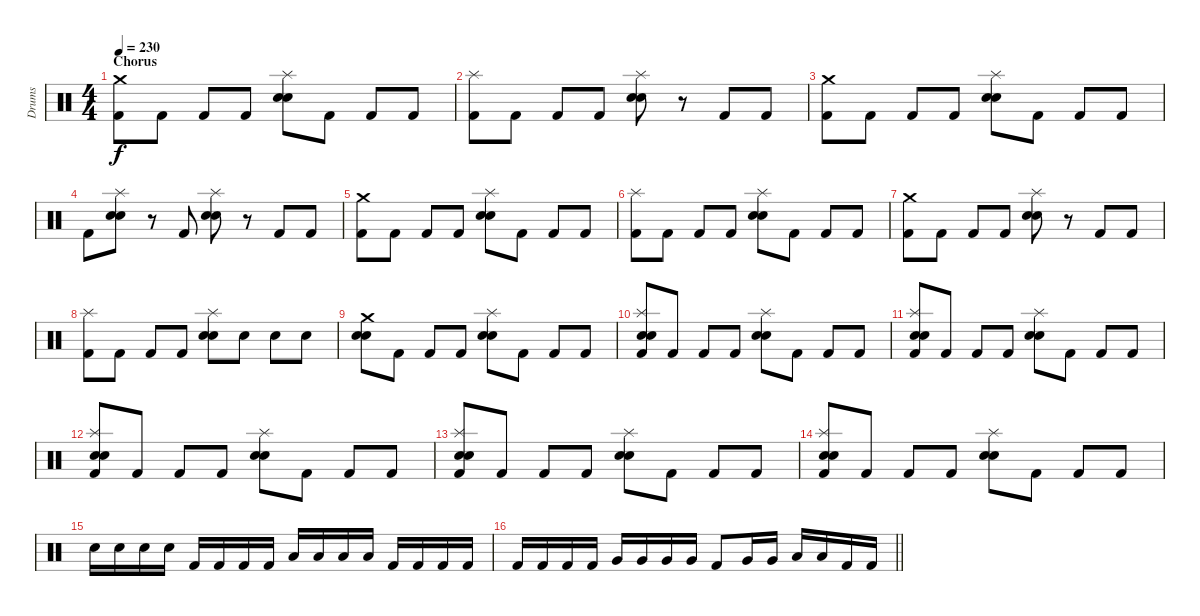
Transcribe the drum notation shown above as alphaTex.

\track ("Drums" "Drums") {instrument percussion}
\staff {score}
\articulation defaults
\ts (4 4)
\section ("" "Chorus")
\tempo 230
\clef neutral
\ks c
("Crash medium (hit)" "Kick (hit) 2").8{dy f} "Kick (hit) 2".8 "Kick (hit) 2".8 "Kick (hit) 2".8 ("Splash (hit)" "Electric Snare (hit)" "Snare (hit) 2").8 "Kick (hit) 2".8 "Kick (hit) 2".8 "Kick (hit) 2".8 |
("Splash (hit)" "Kick (hit) 2").8 "Kick (hit) 2".8 "Kick (hit) 2".8 "Kick (hit) 2".8 ("Splash (hit)" "Electric Snare (hit)" "Snare (hit) 2").8 r.8 "Kick (hit) 2".8 "Kick (hit) 2".8 |
("Crash medium (hit)" "Kick (hit) 2").8 "Kick (hit) 2".8 "Kick (hit) 2".8 "Kick (hit) 2".8 ("Splash (hit)" "Electric Snare (hit)" "Snare (hit) 2").8 "Kick (hit) 2".8 "Kick (hit) 2".8 "Kick (hit) 2".8 |
"Kick (hit) 2".8 ("Splash (hit)" "Electric Snare (hit)" "Snare (hit) 2").8 r.8 "Kick (hit) 2".8 ("Splash (hit)" "Electric Snare (hit)" "Snare (hit) 2").8 r.8 "Kick (hit) 2".8 "Kick (hit) 2".8 |
("Crash medium (hit)" "Kick (hit) 2").8 "Kick (hit) 2".8 "Kick (hit) 2".8 "Kick (hit) 2".8 ("Splash (hit)" "Electric Snare (hit)" "Snare (hit) 2").8 "Kick (hit) 2".8 "Kick (hit) 2".8 "Kick (hit) 2".8 |
("Splash (hit)" "Kick (hit) 2").8 "Kick (hit) 2".8 "Kick (hit) 2".8 "Kick (hit) 2".8 ("Splash (hit)" "Electric Snare (hit)" "Snare (hit) 2").8 "Kick (hit) 2".8 "Kick (hit) 2".8 "Kick (hit) 2".8 |
("Crash medium (hit)" "Kick (hit) 2").8 "Kick (hit) 2".8 "Kick (hit) 2".8 "Kick (hit) 2".8 ("Splash (hit)" "Electric Snare (hit)" "Snare (hit) 2").8 r.8 "Kick (hit) 2".8 "Kick (hit) 2".8 |
("Splash (hit)" "Kick (hit) 2").8 "Kick (hit) 2".8 "Kick (hit) 2".8 "Kick (hit) 2".8 ("Splash (hit)" "Electric Snare (hit)" "Snare (hit) 2").8 "Electric Snare (hit)".8 "Electric Snare (hit)".8 "Electric Snare (hit)".8 |
("Crash medium (hit)" "Electric Snare (hit)" "Snare (hit) 2").8 "Kick (hit) 2".8 "Kick (hit) 2".8 "Kick (hit) 2".8 ("Splash (hit)" "Electric Snare (hit)" "Snare (hit) 2").8 "Kick (hit) 2".8 "Kick (hit) 2".8 "Kick (hit) 2".8 |
("Splash (hit)" "Electric Snare (hit)" "Snare (hit) 2" "Kick (hit) 2").8 "Kick (hit) 2".8 "Kick (hit) 2".8 "Kick (hit) 2".8 ("Splash (hit)" "Electric Snare (hit)" "Snare (hit) 2").8 "Kick (hit) 2".8 "Kick (hit) 2".8 "Kick (hit) 2".8 |
("Splash (hit)" "Electric Snare (hit)" "Snare (hit) 2" "Kick (hit) 2").8 "Kick (hit) 2".8 "Kick (hit) 2".8 "Kick (hit) 2".8 ("Splash (hit)" "Electric Snare (hit)" "Snare (hit) 2").8 "Kick (hit) 2".8 "Kick (hit) 2".8 "Kick (hit) 2".8 |
("Splash (hit)" "Electric Snare (hit)" "Snare (hit) 2" "Kick (hit) 2").8 "Kick (hit) 2".8 "Kick (hit) 2".8 "Kick (hit) 2".8 ("Splash (hit)" "Electric Snare (hit)" "Snare (hit) 2").8 "Kick (hit) 2".8 "Kick (hit) 2".8 "Kick (hit) 2".8 |
("Splash (hit)" "Electric Snare (hit)" "Snare (hit) 2" "Kick (hit) 2").8 "Kick (hit) 2".8 "Kick (hit) 2".8 "Kick (hit) 2".8 ("Splash (hit)" "Electric Snare (hit)" "Snare (hit) 2").8 "Kick (hit) 2".8 "Kick (hit) 2".8 "Kick (hit) 2".8 |
("Splash (hit)" "Electric Snare (hit)" "Snare (hit) 2" "Kick (hit) 2").8 "Kick (hit) 2".8 "Kick (hit) 2".8 "Kick (hit) 2".8 ("Splash (hit)" "Electric Snare (hit)" "Snare (hit) 2").8 "Kick (hit) 2".8 "Kick (hit) 2".8 "Kick (hit) 2".8 |
"Electric Snare (hit)".16 "Electric Snare (hit)".16 "Electric Snare (hit)".16 "Electric Snare (hit)".16 "Kick (hit) 2".16 "Kick (hit) 2".16 "Kick (hit) 2".16 "Kick (hit) 2".16 "Low Tom (hit)".16 "Low Tom (hit)".16 "Low Tom (hit)".16 "Low Tom (hit)".16 "Kick (hit) 2".16 "Kick (hit) 2".16 "Kick (hit) 2".16 "Kick (hit) 2".16 |
\barLineRight lightlight "Kick (hit) 2".16 "Kick (hit) 2".16 "Kick (hit) 2".16 "Kick (hit) 2".16 "Very Low Tom (hit)".16 "Very Low Tom (hit)".16 "Very Low Tom (hit)".16 "Very Low Tom (hit)".16 "Kick (hit) 2".8 "Very Low Tom (hit)".16 "Very Low Tom (hit)".16 "Low Floor Tom (hit)".16 "Low Floor Tom (hit)".16 "Kick (hit) 2".16 "Kick (hit) 2".16
